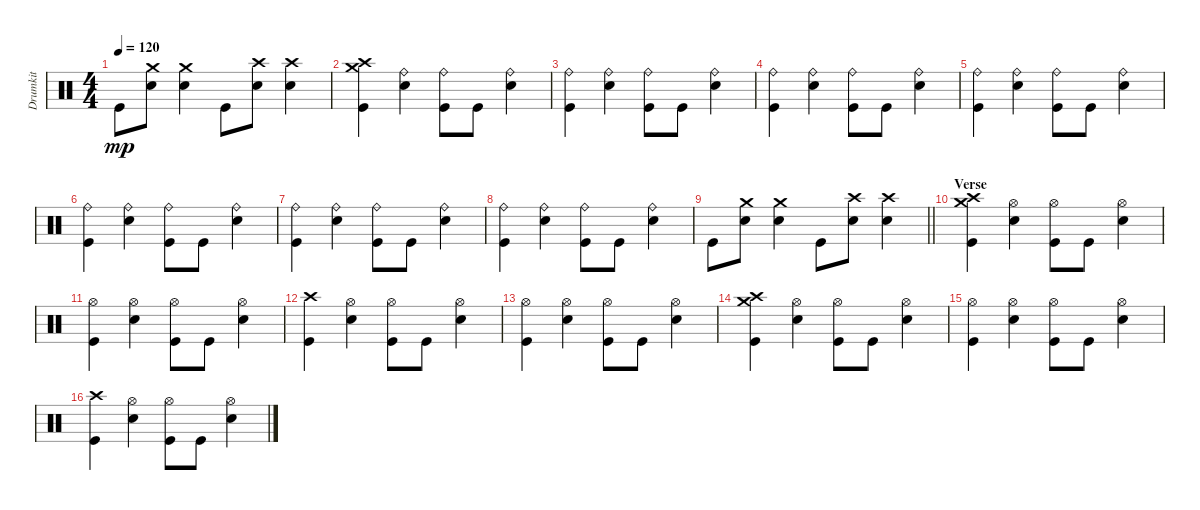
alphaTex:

\track ("Drumkit" "Drumkit") {instrument percussion}
\staff {score}
\articulation defaults
\ts (4 4)
\tempo 120
\clef neutral
\ks c "Kick (hit)".8{dy mp}
("Snare (hit) 2" "Crash medium (hit)").8 ("Snare (hit) 2" "Crash medium (hit)").4 "Kick (hit)".8 ("Snare (hit) 2" "Crash high (hit)").8 ("Snare (hit) 2" "Crash high (hit)").4 |
("Kick (hit)" "Crash high (hit)" "Crash medium (hit)").4 ("Snare (hit) 2" "Ride (bell)").4 ("Kick (hit)" "Ride (bell)").8 "Kick (hit)".8 ("Snare (hit) 2" "Ride (bell)").4 |
("Kick (hit)" "Ride (bell)").4 ("Snare (hit) 2" "Ride (bell)").4 ("Kick (hit)" "Ride (bell)").8 "Kick (hit)".8 ("Snare (hit) 2" "Ride (bell)").4 |
("Kick (hit)" "Ride (bell)").4 ("Snare (hit) 2" "Ride (bell)").4 ("Kick (hit)" "Ride (bell)").8 "Kick (hit)".8 ("Snare (hit) 2" "Ride (bell)").4 |
("Kick (hit)" "Ride (bell)").4 ("Snare (hit) 2" "Ride (bell)").4 ("Kick (hit)" "Ride (bell)").8 "Kick (hit)".8 ("Snare (hit) 2" "Ride (bell)").4 |
("Kick (hit)" "Ride (bell)").4 ("Snare (hit) 2" "Ride (bell)").4 ("Kick (hit)" "Ride (bell)").8 "Kick (hit)".8 ("Snare (hit) 2" "Ride (bell)").4 |
("Kick (hit)" "Ride (bell)").4 ("Snare (hit) 2" "Ride (bell)").4 ("Kick (hit)" "Ride (bell)").8 "Kick (hit)".8 ("Snare (hit) 2" "Ride (bell)").4 |
("Kick (hit)" "Ride (bell)").4 ("Snare (hit) 2" "Ride (bell)").4 ("Kick (hit)" "Ride (bell)").8 "Kick (hit)".8 ("Snare (hit) 2" "Ride (bell)").4 |
\barLineRight lightlight "Kick (hit)".8
("Snare (hit) 2" "Crash medium (hit)").8 ("Snare (hit) 2" "Crash medium (hit)").4 "Kick (hit)".8 ("Snare (hit) 2" "Crash high (hit)").8 ("Snare (hit) 2" "Crash high (hit)").4 |
\section ("" "Verse")
("Kick (hit)" "Crash high (hit)" "Crash medium (hit)").4 ("Snare (hit) 2" "Hi-Hat (open)").4 ("Kick (hit)" "Hi-Hat (open)").8 "Kick (hit)".8 ("Snare (hit) 2" "Hi-Hat (open)").4 |
("Kick (hit)" "Hi-Hat (open)").4 ("Snare (hit) 2" "Hi-Hat (open)").4 ("Kick (hit)" "Hi-Hat (open)").8 "Kick (hit)".8 ("Snare (hit) 2" "Hi-Hat (open)").4 |
("Kick (hit)" "Crash high (hit)").4 ("Snare (hit) 2" "Hi-Hat (open)").4 ("Kick (hit)" "Hi-Hat (open)").8 "Kick (hit)".8 ("Snare (hit) 2" "Hi-Hat (open)").4 |
("Kick (hit)" "Hi-Hat (open)").4 ("Snare (hit) 2" "Hi-Hat (open)").4 ("Kick (hit)" "Hi-Hat (open)").8 "Kick (hit)".8 ("Snare (hit) 2" "Hi-Hat (open)").4 |
("Kick (hit)" "Crash high (hit)" "Crash medium (hit)").4 ("Snare (hit) 2" "Hi-Hat (open)").4 ("Kick (hit)" "Hi-Hat (open)").8 "Kick (hit)".8 ("Snare (hit) 2" "Hi-Hat (open)").4 |
("Kick (hit)" "Hi-Hat (open)").4 ("Snare (hit) 2" "Hi-Hat (open)").4 ("Kick (hit)" "Hi-Hat (open)").8 "Kick (hit)".8 ("Snare (hit) 2" "Hi-Hat (open)").4 |
("Kick (hit)" "Crash high (hit)").4 ("Snare (hit) 2" "Hi-Hat (open)").4 ("Kick (hit)" "Hi-Hat (open)").8 "Kick (hit)".8 ("Snare (hit) 2" "Hi-Hat (open)").4
